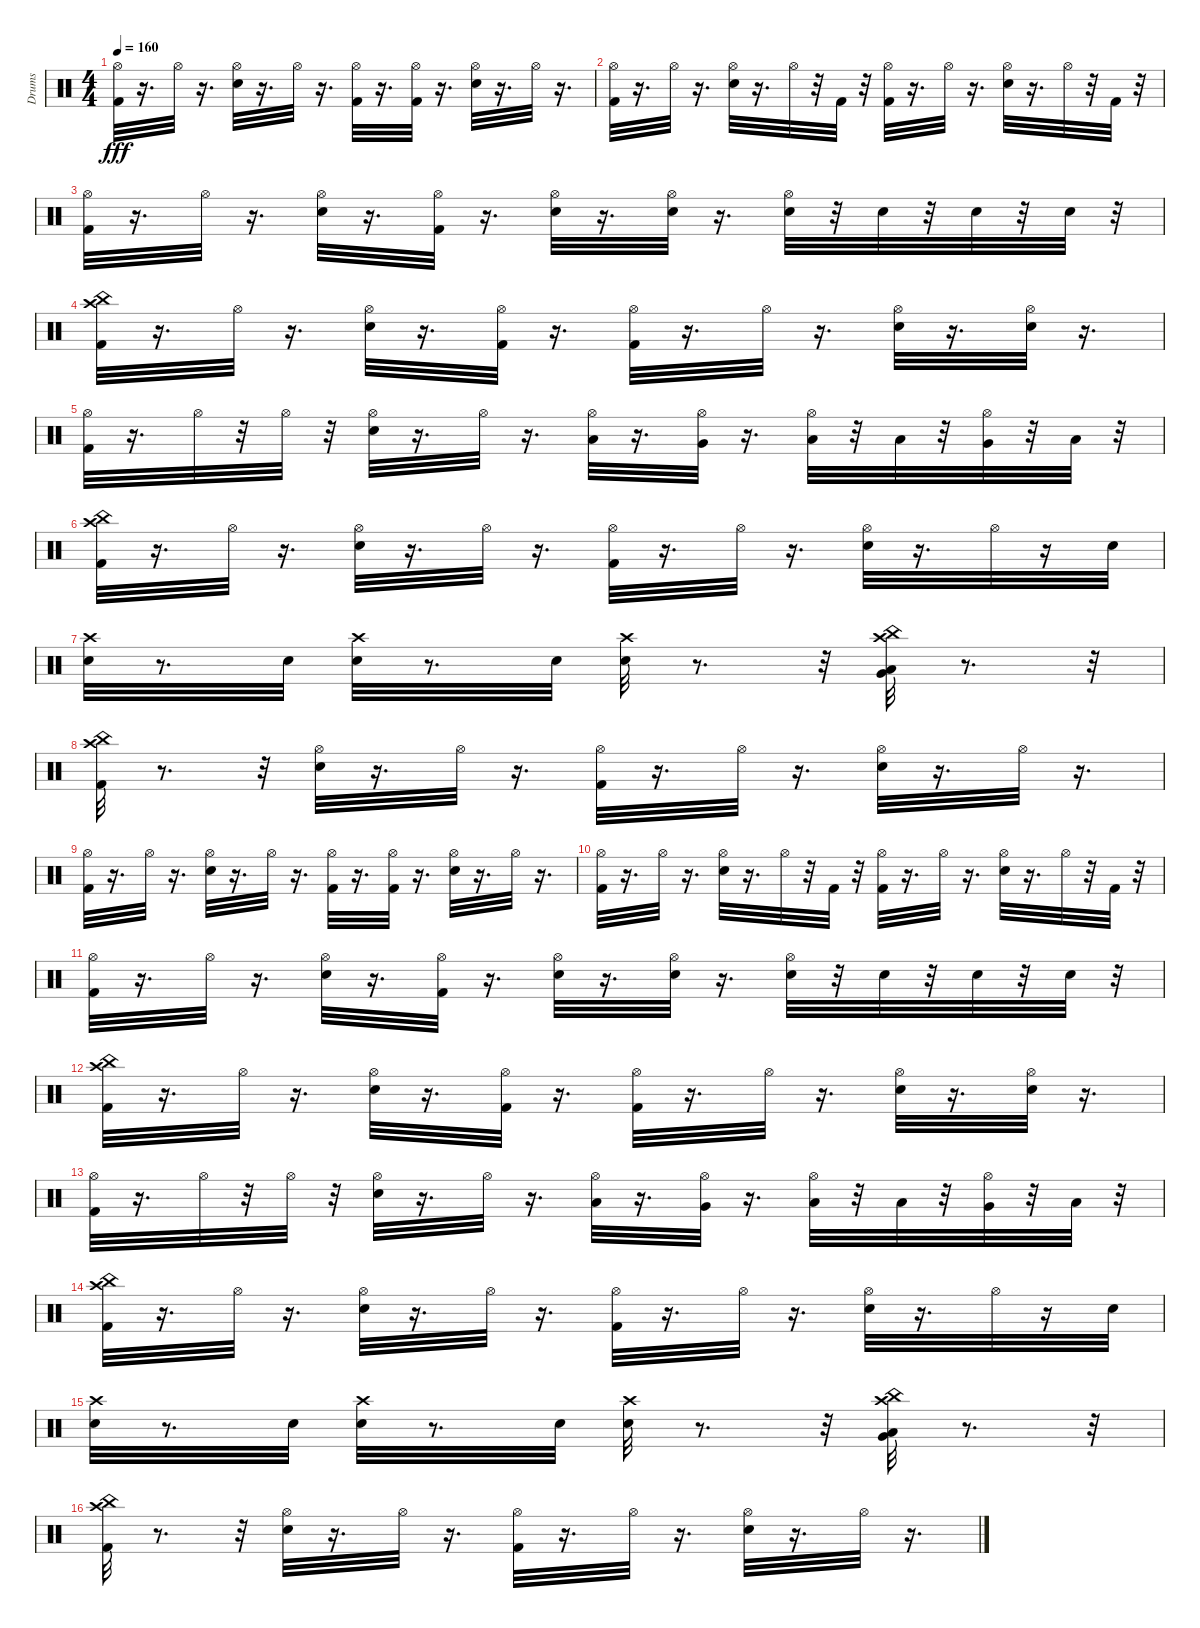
\track ("Drums" "Drums") {instrument percussion}
\staff {score}
\articulation defaults
\ts (4 4)
\tempo 160
\clef neutral
\ks c
("Hi-Hat (open)" "Kick (hit) 2").32{dy fff} r.16{d} "Hi-Hat (open)".32 r.16{d} ("Hi-Hat (open)" "Snare (hit) 2").32 r.16{d} "Hi-Hat (open)".32 r.16{d} ("Hi-Hat (open)" "Kick (hit) 2").32 r.16{d} ("Hi-Hat (open)" "Kick (hit) 2").32 r.16{d} ("Hi-Hat (open)" "Snare (hit) 2").32 r.16{d} "Hi-Hat (open)".32 r.16{d} |
("Hi-Hat (open)" "Kick (hit) 2").32 r.16{d} "Hi-Hat (open)".32 r.16{d} ("Hi-Hat (open)" "Snare (hit) 2").32 r.16{d} "Hi-Hat (open)".32 r.32 "Kick (hit) 2".32 r.32 ("Hi-Hat (open)" "Kick (hit) 2").32 r.16{d} "Hi-Hat (open)".32 r.16{d} ("Hi-Hat (open)" "Snare (hit) 2").32 r.16{d} "Hi-Hat (open)".32 r.32 "Kick (hit) 2".32 r.32 |
("Hi-Hat (open)" "Kick (hit) 2").32 r.16{d} "Hi-Hat (open)".32 r.16{d} ("Hi-Hat (open)" "Snare (hit) 2").32 r.16{d} ("Hi-Hat (open)" "Kick (hit) 2").32 r.16{d} ("Hi-Hat (open)" "Snare (hit) 2").32 r.16{d} ("Hi-Hat (open)" "Snare (hit) 2").32 r.16{d} ("Hi-Hat (open)" "Snare (hit) 2").32 r.32 "Snare (hit) 2".32 r.32 "Snare (hit) 2".32 r.32 "Snare (hit) 2".32 r.32 |
("Kick (hit) 2" "China (hit)" "Crash high (hit)").32 r.16{d} "Hi-Hat (open)".32 r.16{d} ("Hi-Hat (open)" "Snare (hit) 2").32 r.16{d} ("Hi-Hat (open)" "Kick (hit) 2").32 r.16{d} ("Hi-Hat (open)" "Kick (hit) 2").32 r.16{d} "Hi-Hat (open)".32 r.16{d} ("Hi-Hat (open)" "Snare (hit) 2").32 r.16{d} ("Hi-Hat (open)" "Snare (hit) 2").32 r.16{d} |
("Hi-Hat (open)" "Kick (hit) 2").32 r.16{d} "Hi-Hat (open)".32 r.32 "Hi-Hat (open)".32 r.32 ("Hi-Hat (open)" "Snare (hit) 2").32 r.16{d} "Hi-Hat (open)".32 r.16{d} ("Hi-Hat (open)" "Low Floor Tom (hit)").32 r.16{d} ("Hi-Hat (open)" "Very Low Tom (hit)").32 r.16{d} ("Hi-Hat (open)" "Low Tom (hit)").32 r.32 "Low Tom (hit)".32 r.32 ("Hi-Hat (open)" "Very Low Tom (hit)").32 r.32 "Low Floor Tom (hit)".32 r.32 |
("China (hit)" "Crash high (hit)" "Kick (hit) 2").32 r.16{d} "Hi-Hat (open)".32 r.16{d} ("Hi-Hat (open)" "Snare (hit) 2").32 r.16{d} "Hi-Hat (open)".32 r.16{d} ("Hi-Hat (open)" "Kick (hit) 2").32 r.16{d} "Hi-Hat (open)".32 r.16{d} ("Hi-Hat (open)" "Snare (hit) 2").32 r.16{d} "Hi-Hat (open)".32 r.16 "Snare (hit) 2".32 |
("Crash high (hit)" "Snare (hit) 2").32 r.8{d} "Snare (hit) 2".32 ("Crash high (hit)" "Snare (hit) 2").32 r.8{d} "Snare (hit) 2".32 ("Crash high (hit)" "Snare (hit) 2").32 r.8{d} r.32 ("Crash high (hit)" "China (hit)" "Very Low Tom (hit)" "Low Floor Tom (hit)").32 r.8{d} r.32 |
("China (hit)" "Crash high (hit)" "Kick (hit) 2").32 r.8{d} r.32 ("Hi-Hat (open)" "Snare (hit) 2").32 r.16{d} "Hi-Hat (open)".32 r.16{d} ("Hi-Hat (open)" "Kick (hit) 2").32 r.16{d} "Hi-Hat (open)".32 r.16{d} ("Hi-Hat (open)" "Snare (hit) 2").32 r.16{d} "Hi-Hat (open)".32 r.16{d} |
("Hi-Hat (open)" "Kick (hit) 2").32 r.16{d} "Hi-Hat (open)".32 r.16{d} ("Hi-Hat (open)" "Snare (hit) 2").32 r.16{d} "Hi-Hat (open)".32 r.16{d} ("Hi-Hat (open)" "Kick (hit) 2").32 r.16{d} ("Hi-Hat (open)" "Kick (hit) 2").32 r.16{d} ("Hi-Hat (open)" "Snare (hit) 2").32 r.16{d} "Hi-Hat (open)".32 r.16{d} |
("Hi-Hat (open)" "Kick (hit) 2").32 r.16{d} "Hi-Hat (open)".32 r.16{d} ("Hi-Hat (open)" "Snare (hit) 2").32 r.16{d} "Hi-Hat (open)".32 r.32 "Kick (hit) 2".32 r.32 ("Hi-Hat (open)" "Kick (hit) 2").32 r.16{d} "Hi-Hat (open)".32 r.16{d} ("Hi-Hat (open)" "Snare (hit) 2").32 r.16{d} "Hi-Hat (open)".32 r.32 "Kick (hit) 2".32 r.32 |
("Hi-Hat (open)" "Kick (hit) 2").32 r.16{d} "Hi-Hat (open)".32 r.16{d} ("Hi-Hat (open)" "Snare (hit) 2").32 r.16{d} ("Hi-Hat (open)" "Kick (hit) 2").32 r.16{d} ("Hi-Hat (open)" "Snare (hit) 2").32 r.16{d} ("Hi-Hat (open)" "Snare (hit) 2").32 r.16{d} ("Hi-Hat (open)" "Snare (hit) 2").32 r.32 "Snare (hit) 2".32 r.32 "Snare (hit) 2".32 r.32 "Snare (hit) 2".32 r.32 |
("Kick (hit) 2" "China (hit)" "Crash high (hit)").32 r.16{d} "Hi-Hat (open)".32 r.16{d} ("Hi-Hat (open)" "Snare (hit) 2").32 r.16{d} ("Hi-Hat (open)" "Kick (hit) 2").32 r.16{d} ("Hi-Hat (open)" "Kick (hit) 2").32 r.16{d} "Hi-Hat (open)".32 r.16{d} ("Hi-Hat (open)" "Snare (hit) 2").32 r.16{d} ("Hi-Hat (open)" "Snare (hit) 2").32 r.16{d} |
("Hi-Hat (open)" "Kick (hit) 2").32 r.16{d} "Hi-Hat (open)".32 r.32 "Hi-Hat (open)".32 r.32 ("Hi-Hat (open)" "Snare (hit) 2").32 r.16{d} "Hi-Hat (open)".32 r.16{d} ("Hi-Hat (open)" "Low Floor Tom (hit)").32 r.16{d} ("Hi-Hat (open)" "Very Low Tom (hit)").32 r.16{d} ("Hi-Hat (open)" "Low Tom (hit)").32 r.32 "Low Tom (hit)".32 r.32 ("Hi-Hat (open)" "Very Low Tom (hit)").32 r.32 "Low Floor Tom (hit)".32 r.32 |
("China (hit)" "Crash high (hit)" "Kick (hit) 2").32 r.16{d} "Hi-Hat (open)".32 r.16{d} ("Hi-Hat (open)" "Snare (hit) 2").32 r.16{d} "Hi-Hat (open)".32 r.16{d} ("Hi-Hat (open)" "Kick (hit) 2").32 r.16{d} "Hi-Hat (open)".32 r.16{d} ("Hi-Hat (open)" "Snare (hit) 2").32 r.16{d} "Hi-Hat (open)".32 r.16 "Snare (hit) 2".32 |
("Crash high (hit)" "Snare (hit) 2").32 r.8{d} "Snare (hit) 2".32 ("Crash high (hit)" "Snare (hit) 2").32 r.8{d} "Snare (hit) 2".32 ("Crash high (hit)" "Snare (hit) 2").32 r.8{d} r.32 ("Crash high (hit)" "China (hit)" "Very Low Tom (hit)" "Low Floor Tom (hit)").32 r.8{d} r.32 |
("China (hit)" "Crash high (hit)" "Kick (hit) 2").32 r.8{d} r.32 ("Hi-Hat (open)" "Snare (hit) 2").32 r.16{d} "Hi-Hat (open)".32 r.16{d} ("Hi-Hat (open)" "Kick (hit) 2").32 r.16{d} "Hi-Hat (open)".32 r.16{d} ("Hi-Hat (open)" "Snare (hit) 2").32 r.16{d} "Hi-Hat (open)".32 r.16{d}
